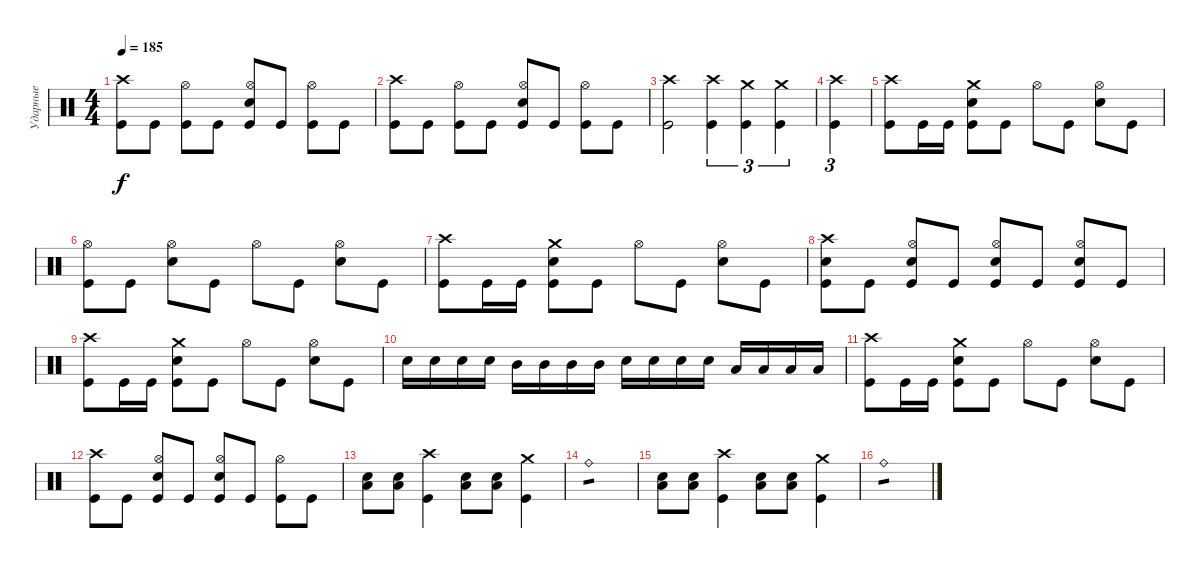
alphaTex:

\track ("Ударные" "Ударные") {instrument percussion}
\staff {score}
\articulation defaults
\ts (4 4)
\tempo 185
\clef neutral
\ks c
("Crash high (hit)" "Kick (hit)").8{dy f} "Kick (hit)".8 ("Hi-Hat (open)" "Kick (hit)").8 "Kick (hit)".8 ("Hi-Hat (open)" "Kick (hit)" "Snare (hit) 2").8 "Kick (hit)".8 ("Hi-Hat (open)" "Kick (hit)").8 "Kick (hit)".8 |
("Crash high (hit)" "Kick (hit)").8 "Kick (hit)".8 ("Hi-Hat (open)" "Kick (hit)").8 "Kick (hit)".8 ("Hi-Hat (open)" "Kick (hit)" "Snare (hit) 2").8 "Kick (hit)".8 ("Hi-Hat (open)" "Kick (hit)").8 "Kick (hit)".8 |
("Kick (hit)" "Crash high (hit)").2 ("Kick (hit)" "Crash high (hit)").4{tu (3 2)} ("Kick (hit)" "Crash medium (hit)").4{tu (3 2)} ("Kick (hit)" "Crash medium (hit)").4{tu (3 2)} |
("Kick (hit)" "Crash high (hit)").4{tu (3 2)} |
("Kick (hit)" "Crash high (hit)").8 "Kick (hit)".16 "Kick (hit)".16 ("Kick (hit)" "Snare (hit) 2" "Crash medium (hit)").8 "Kick (hit)".8 "Hi-Hat (open)".8 "Kick (hit)".8 ("Snare (hit) 2" "Hi-Hat (open)").8 "Kick (hit)".8 |
("Kick (hit)" "Hi-Hat (open)").8 "Kick (hit)".8 ("Hi-Hat (open)" "Snare (hit) 2").8 "Kick (hit)".8 "Hi-Hat (open)".8 "Kick (hit)".8 ("Snare (hit) 2" "Hi-Hat (open)").8 "Kick (hit)".8 |
("Kick (hit)" "Crash high (hit)").8 "Kick (hit)".16 "Kick (hit)".16 ("Kick (hit)" "Snare (hit) 2" "Crash medium (hit)").8 "Kick (hit)".8 "Hi-Hat (open)".8 "Kick (hit)".8 ("Snare (hit) 2" "Hi-Hat (open)").8 "Kick (hit)".8 |
("Crash high (hit)" "Kick (hit)" "Snare (hit) 2").8 "Kick (hit)".8 ("Hi-Hat (open)" "Kick (hit)" "Snare (hit) 2").8 "Kick (hit)".8 ("Hi-Hat (open)" "Kick (hit)" "Snare (hit) 2").8 "Kick (hit)".8 ("Hi-Hat (open)" "Kick (hit)" "Snare (hit) 2").8 "Kick (hit)".8 |
("Kick (hit)" "Crash high (hit)").8 "Kick (hit)".16 "Kick (hit)".16 ("Kick (hit)" "Snare (hit) 2" "Crash medium (hit)").8 "Kick (hit)".8 "Hi-Hat (open)".8 "Kick (hit)".8 ("Snare (hit) 2" "Hi-Hat (open)").8 "Kick (hit)".8 |
"Snare (hit) 2".16 "Snare (hit) 2".16 "Snare (hit) 2".16 "Snare (hit) 2".16 "Mid Tom (hit)".16 "Mid Tom (hit)".16 "Mid Tom (hit)".16 "Mid Tom (hit)".16 "Snare (hit) 2".16 "Snare (hit) 2".16 "Snare (hit) 2".16 "Snare (hit) 2".16 "Low Tom (hit)".16 "Low Tom (hit)".16 "Low Tom (hit)".16 "Low Tom (hit)".16 |
("Kick (hit)" "Crash high (hit)").8 "Kick (hit)".16 "Kick (hit)".16 ("Kick (hit)" "Snare (hit) 2" "Crash medium (hit)").8 "Kick (hit)".8 "Hi-Hat (open)".8 "Kick (hit)".8 ("Snare (hit) 2" "Hi-Hat (open)").8 "Kick (hit)".8 |
("Crash high (hit)" "Kick (hit)").8 "Kick (hit)".8 ("Hi-Hat (open)" "Kick (hit)" "Snare (hit) 2").8 "Kick (hit)".8 ("Hi-Hat (open)" "Kick (hit)" "Snare (hit) 2").8 "Kick (hit)".8 ("Hi-Hat (open)" "Kick (hit)").8 "Kick (hit)".8 |
("Low Floor Tom (hit)" "Snare (hit) 2").8 ("Low Floor Tom (hit)" "Snare (hit) 2").8 ("Crash high (hit)" "Kick (hit)").4 ("Low Floor Tom (hit)" "Snare (hit) 2").8 ("Low Floor Tom (hit)" "Snare (hit) 2").8 ("Crash medium (hit)" "Kick (hit)").4 |
"Ride (bell)".1{tp 1} |
("Low Floor Tom (hit)" "Snare (hit) 2").8 ("Low Floor Tom (hit)" "Snare (hit) 2").8 ("Crash high (hit)" "Kick (hit)").4 ("Low Floor Tom (hit)" "Snare (hit) 2").8 ("Low Floor Tom (hit)" "Snare (hit) 2").8 ("Crash medium (hit)" "Kick (hit)").4 |
"Ride (bell)".1{tp 1}
